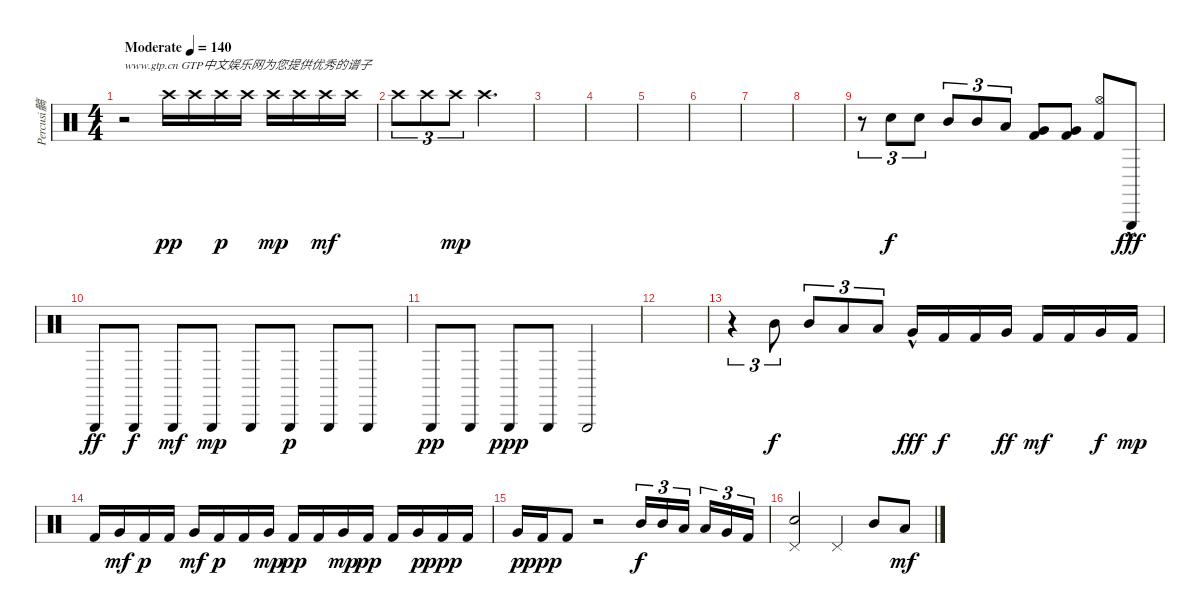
\track ("Percusi髇" "Percusi髇") {instrument percussion}
\staff {score}
\articulation defaults
\ts (4 4)
\tempo (140 "Moderate")
\clef neutral
\ks c
r.2{txt "www.gtp.cn GTP中文娱乐网为您提供优秀的谱子" dy pp} "Crash high (hit)".16 "Crash high (hit)".16 "Crash high (hit)".16{dy p} "Crash high (hit)".16 "Crash high (hit)".16{dy mp} "Crash high (hit)".16 "Crash high (hit)".16{dy mf} "Crash high (hit)".16 |
"Crash high (hit)".8{tu (3 2)} "Crash high (hit)".8{tu (3 2)} "Crash high (hit)".8{tu (3 2) dy mp} "Crash high (hit)".2{d} |
|
|
|
|
|
|
r.8{tu (3 2)} "Electric Snare (hit)".8{tu (3 2) dy f} "Electric Snare (hit)".8{tu (3 2)} "Mid Tom (hit)".8{tu (3 2)} "Mid Tom (hit)".8{tu (3 2)} "Low Tom (hit)".8{tu (3 2)} ("Kick (hit) 2" "Very Low Tom (hit)").8 ("Kick (hit) 2" "Very Low Tom (hit)").8 ("Kick (hit) 2" "Hi-Hat (open)").8 "Triangle (hit)"{hac}.8{dy fff} |
"Triangle (hit)".8{dy ff} "Triangle (hit)".8{dy f} "Triangle (hit)".8{dy mf} "Triangle (hit)".8{dy mp} "Triangle (hit)".8 "Triangle (hit)".8{dy p} "Triangle (hit)".8 "Triangle (hit)".8 |
"Triangle (hit)".8{dy pp} "Triangle (hit)".8 "Triangle (hit)".8{dy ppp} "Triangle (hit)".8 "Triangle (hit)".2 |
|
r.4{tu (3 2)} "Mid Tom (hit)".8{tu (3 2) dy f} "Mid Tom (hit)".8{tu (3 2)} "Low Tom (hit)".8{tu (3 2)} "Low Tom (hit)".8{tu (3 2)} "Very Low Tom (hit)"{hac}.16{dy fff} "Kick (hit) 2".16{dy f} "Kick (hit) 2".16 "Very Low Tom (hit)".16{dy ff} "Kick (hit) 2".16{dy mf} "Kick (hit) 2".16 "Very Low Tom (hit)".16{dy f} "Kick (hit) 2".16{dy mp} |
"Kick (hit) 2".16 "Very Low Tom (hit)".16{dy mf} "Kick (hit) 2".16{dy p} "Kick (hit) 2".16 "Very Low Tom (hit)".16{dy mf} "Kick (hit) 2".16{dy p} "Kick (hit) 2".16 "Very Low Tom (hit)".16{dy mp} "Kick (hit) 2".16{dy pp} "Kick (hit) 2".16 "Very Low Tom (hit)".16{dy mp} "Kick (hit) 2".16{dy pp} "Kick (hit) 2".16 "Very Low Tom (hit)".16{dy p} "Kick (hit) 2".16{dy ppp} "Kick (hit) 2".16 |
"Very Low Tom (hit)".16{dy p} "Kick (hit) 2".16{dy ppp} "Kick (hit) 2".8 r.2 "Mid Tom (hit)".16{tu (3 2) dy f} "Mid Tom (hit)".16{tu (3 2)} "Low Tom (hit)".16{tu (3 2) beam splitsecondary} "Low Tom (hit)".16{tu (3 2)} "Very Low Tom (hit)".16{tu (3 2)} "Kick (hit) 2".16{tu (3 2)} |
("Snare (hit) 2" "Pedal Hi-Hat (hit)").2 "Pedal Hi-Hat (hit)".4 "Mid Tom (hit)".8 "Low Tom (hit)".8{dy mf}
